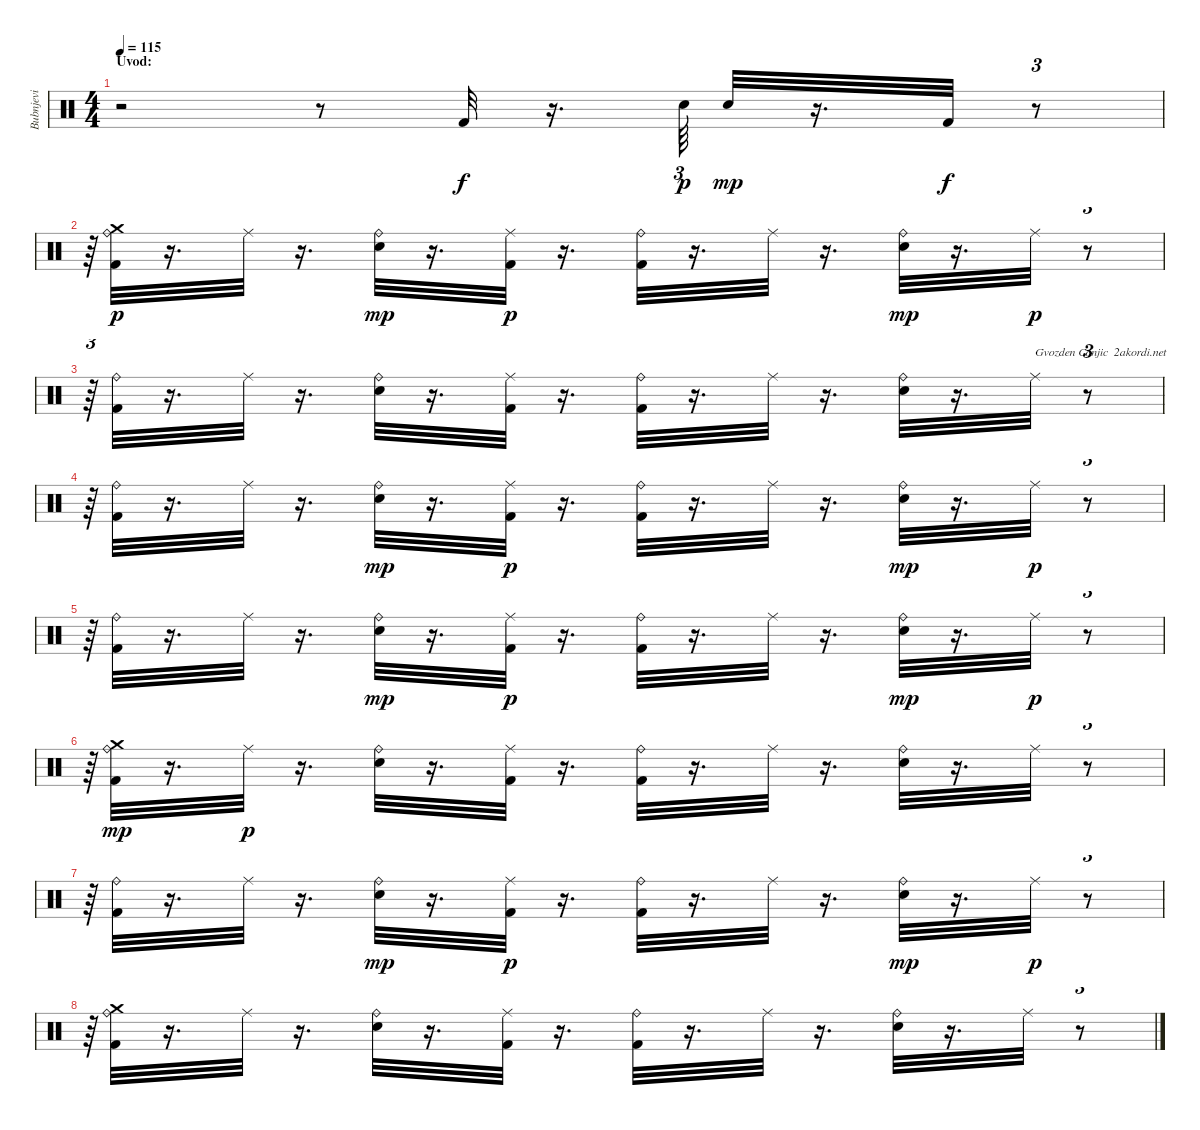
\track ("Bubnjevi" "Bubnjevi") {instrument percussion}
\staff {score}
\articulation defaults
\ts (4 4)
\section ("" "Uvod:")
\tempo 115
\clef neutral
\ks c
r.2{dy f} r.8 "Kick (hit) 2".32 r.16{d} "Electric Snare (hit)".64{tu (3 2) dy p} "Electric Snare (hit)".32{dy mp} r.16{d} "Kick (hit) 2".32{dy f} r.8{tu (3 2)} |
r.64{tu (3 2)} ("Crash medium (hit)" "Ride (bell)" "Kick (hit) 2").32{dy p} r.16{d} "Ride (middle)".32 r.16{d} ("Ride (bell)" "Electric Snare (hit)").32{dy mp} r.16{d} ("Ride (middle)" "Kick (hit) 2").32{dy p} r.16{d} ("Ride (bell)" "Kick (hit) 2").32 r.16{d} "Ride (middle)".32 r.16{d} ("Ride (bell)" "Electric Snare (hit)").32{dy mp} r.16{d} "Ride (middle)".32{dy p} r.8{tu (3 2)} |
r.64{tu (3 2)} ("Kick (hit) 2" "Ride (bell)").32 r.16{d} "Ride (middle)".32 r.16{d} ("Electric Snare (hit)" "Ride (bell)").32 r.16{d} ("Kick (hit) 2" "Ride (middle)").32 r.16{d} ("Kick (hit) 2" "Ride (bell)").32 r.16{d} "Ride (middle)".32 r.16{d} ("Electric Snare (hit)" "Ride (bell)").32 r.16{d} "Ride (middle)".32{txt "Gvozden Conjic  2akordi.net"} r.8{tu (3 2)} |
r.64{tu (3 2)} ("Ride (bell)" "Kick (hit) 2").32 r.16{d} "Ride (middle)".32 r.16{d} ("Ride (bell)" "Electric Snare (hit)").32{dy mp} r.16{d} ("Ride (middle)" "Kick (hit) 2").32{dy p} r.16{d} ("Ride (bell)" "Kick (hit) 2").32 r.16{d} "Ride (middle)".32 r.16{d} ("Ride (bell)" "Electric Snare (hit)").32{dy mp} r.16{d} "Ride (middle)".32{dy p} r.8{tu (3 2)} |
r.64{tu (3 2)} ("Ride (bell)" "Kick (hit) 2").32 r.16{d} "Ride (middle)".32 r.16{d} ("Ride (bell)" "Electric Snare (hit)").32{dy mp} r.16{d} ("Ride (middle)" "Kick (hit) 2").32{dy p} r.16{d} ("Ride (bell)" "Kick (hit) 2").32 r.16{d} "Ride (middle)".32 r.16{d} ("Ride (bell)" "Electric Snare (hit)").32{dy mp} r.16{d} "Ride (middle)".32{dy p} r.8{tu (3 2)} |
r.64{tu (3 2)} ("Kick (hit) 2" "Ride (bell)" "Crash medium (hit)").32{dy mp} r.16{d} "Ride (middle)".32{dy p} r.16{d} ("Electric Snare (hit)" "Ride (bell)").32 r.16{d} ("Kick (hit) 2" "Ride (middle)").32 r.16{d} ("Kick (hit) 2" "Ride (bell)").32 r.16{d} "Ride (middle)".32 r.16{d} ("Electric Snare (hit)" "Ride (bell)").32 r.16{d} "Ride (middle)".32 r.8{tu (3 2)} |
r.64{tu (3 2)} ("Ride (bell)" "Kick (hit) 2").32 r.16{d} "Ride (middle)".32 r.16{d} ("Ride (bell)" "Electric Snare (hit)").32{dy mp} r.16{d} ("Ride (middle)" "Kick (hit) 2").32{dy p} r.16{d} ("Ride (bell)" "Kick (hit) 2").32 r.16{d} "Ride (middle)".32 r.16{d} ("Ride (bell)" "Electric Snare (hit)").32{dy mp} r.16{d} "Ride (middle)".32{dy p} r.8{tu (3 2)} |
r.64{tu (3 2)} ("Crash medium (hit)" "Kick (hit) 2" "Ride (bell)").32 r.16{d} "Ride (middle)".32 r.16{d} ("Electric Snare (hit)" "Ride (bell)").32 r.16{d} ("Kick (hit) 2" "Ride (middle)").32 r.16{d} ("Kick (hit) 2" "Ride (bell)").32 r.16{d} "Ride (middle)".32 r.16{d} ("Electric Snare (hit)" "Ride (bell)").32 r.16{d} "Ride (middle)".32 r.8{tu (3 2)}
